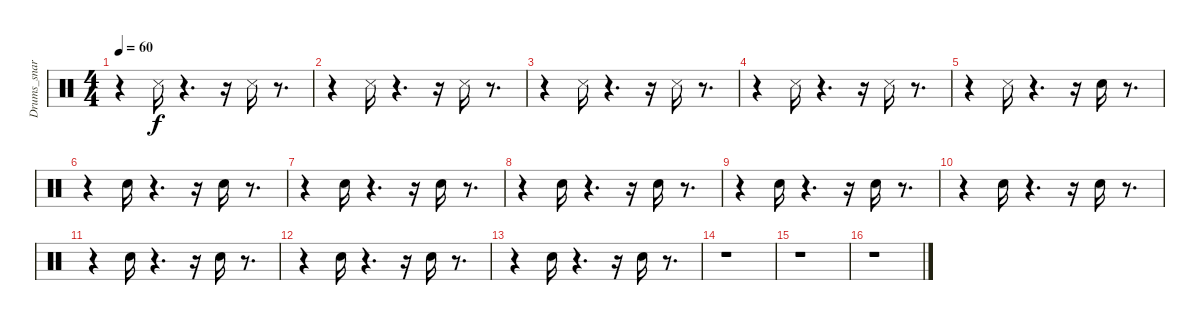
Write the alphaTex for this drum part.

\track ("Drums_snare&tom" "Drums_snar") {instrument percussion}
\staff {score}
\articulation defaults
\ts (4 4)
\tempo 60
\clef neutral
\ks c
r.4{dy f} "Snare (side stick) 3".16 r.4{d} r.16 "Snare (side stick) 3".16 r.8{d} |
r.4 "Snare (side stick) 3".16 r.4{d} r.16 "Snare (side stick) 3".16 r.8{d} |
r.4 "Snare (side stick) 3".16 r.4{d} r.16 "Snare (side stick) 3".16 r.8{d} |
r.4 "Snare (side stick) 3".16 r.4{d} r.16 "Snare (side stick) 3".16 r.8{d} |
r.4 "Snare (side stick) 3".16 r.4{d} r.16 "Electric Snare (hit)".16 r.8{d} |
r.4 "Electric Snare (hit)".16 r.4{d} r.16 "Electric Snare (hit)".16 r.8{d} |
r.4 "Electric Snare (hit)".16 r.4{d} r.16 "Electric Snare (hit)".16 r.8{d} |
r.4 "Electric Snare (hit)".16 r.4{d} r.16 "Electric Snare (hit)".16 r.8{d} |
r.4 "Electric Snare (hit)".16 r.4{d} r.16 "Electric Snare (hit)".16 r.8{d} |
r.4 "Electric Snare (hit)".16 r.4{d} r.16 "Electric Snare (hit)".16 r.8{d} |
r.4 "Electric Snare (hit)".16 r.4{d} r.16 "Electric Snare (hit)".16 r.8{d} |
r.4 "Electric Snare (hit)".16 r.4{d} r.16 "Electric Snare (hit)".16 r.8{d} |
r.4 "Electric Snare (hit)".16 r.4{d} r.16 "Electric Snare (hit)".16 r.8{d} |
r.1 |
r.1 |
r.1
